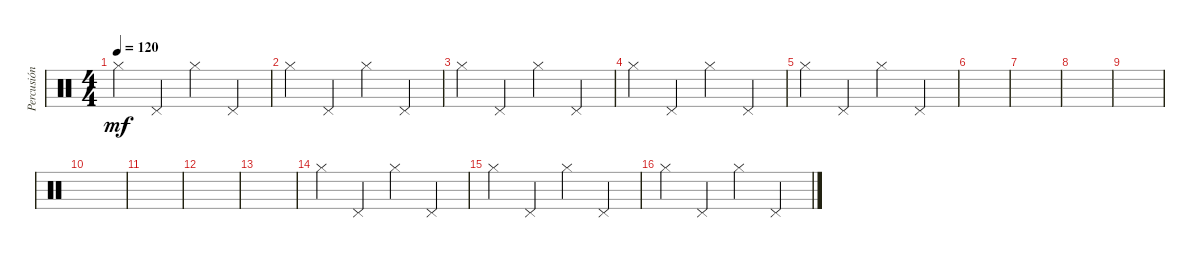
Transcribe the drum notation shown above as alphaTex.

\track ("Percusión" "Percusión") {instrument percussion}
\staff {score}
\articulation defaults
\ts (4 4)
\tempo 120
\clef neutral
\ks c "Hi-Hat (closed)".4{dy mf} "Pedal Hi-Hat (hit)".4 "Hi-Hat (closed)".4 "Pedal Hi-Hat (hit)".4
|
"Hi-Hat (closed)".4 "Pedal Hi-Hat (hit)".4 "Hi-Hat (closed)".4 "Pedal Hi-Hat (hit)".4 |
"Hi-Hat (closed)".4 "Pedal Hi-Hat (hit)".4 "Hi-Hat (closed)".4 "Pedal Hi-Hat (hit)".4 |
"Hi-Hat (closed)".4 "Pedal Hi-Hat (hit)".4 "Hi-Hat (closed)".4 "Pedal Hi-Hat (hit)".4 |
"Hi-Hat (closed)".4 "Pedal Hi-Hat (hit)".4 "Hi-Hat (closed)".4 "Pedal Hi-Hat (hit)".4 |
|
|
|
|
|
|
|
|
"Hi-Hat (closed)".4 "Pedal Hi-Hat (hit)".4 "Hi-Hat (closed)".4 "Pedal Hi-Hat (hit)".4 |
"Hi-Hat (closed)".4 "Pedal Hi-Hat (hit)".4 "Hi-Hat (closed)".4 "Pedal Hi-Hat (hit)".4 |
"Hi-Hat (closed)".4 "Pedal Hi-Hat (hit)".4 "Hi-Hat (closed)".4 "Pedal Hi-Hat (hit)".4
